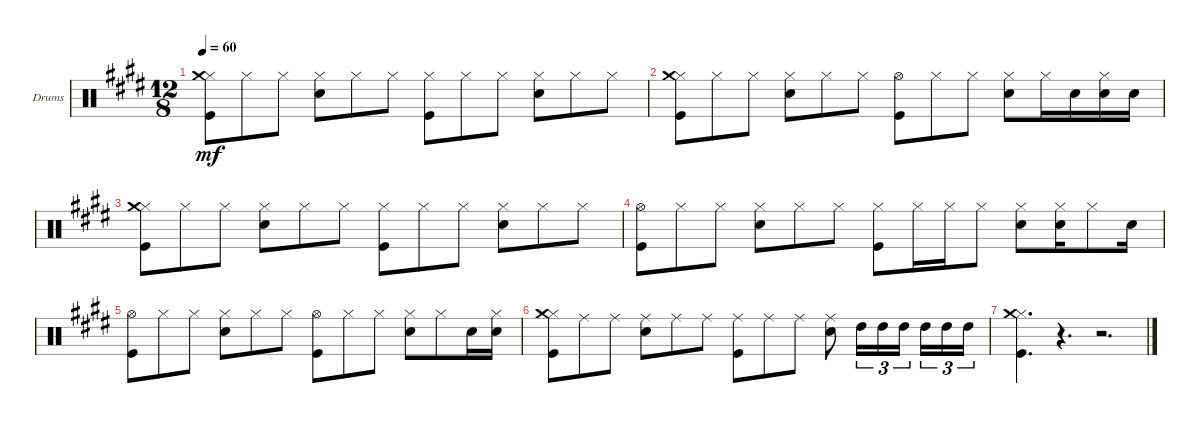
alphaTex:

\defaultSystemsLayout 4
\bracketExtendMode groupsimilarinstruments
\firstSystemTrackNameOrientation horizontal
\otherSystemsTrackNameOrientation horizontal
\track ("Drumkit" "Drums") {instrument percussion}
\staff {score}
\articulation defaults
\ts (12 8)
\tempo 60
\clef neutral
\ks e
("Hi-Hat (closed)" "Crash medium (hit)" "Kick (hit)").8{dy mf} "Hi-Hat (closed)".8 "Hi-Hat (closed)".8 ("Hi-Hat (closed)" "Snare (hit) 2").8 "Hi-Hat (closed)".8 "Hi-Hat (closed)".8 ("Hi-Hat (closed)" "Kick (hit)").8 "Hi-Hat (closed)".8 "Hi-Hat (closed)".8 ("Hi-Hat (closed)" "Snare (hit) 2").8 "Hi-Hat (closed)".8 "Hi-Hat (closed)".8 |
("Hi-Hat (closed)" "Crash medium (hit)" "Kick (hit)").8 "Hi-Hat (closed)".8 "Hi-Hat (closed)".8 ("Hi-Hat (closed)" "Snare (hit) 2").8 "Hi-Hat (closed)".8 "Hi-Hat (closed)".8 ("Hi-Hat (open)" "Kick (hit)").8 "Hi-Hat (closed)".8 "Hi-Hat (closed)".8 ("Hi-Hat (closed)" "Snare (hit) 2").8 "Hi-Hat (closed)".16 "Snare (hit) 2".16 ("Snare (hit) 2" "Hi-Hat (closed)").16 "Snare (hit) 2".16 |
("Hi-Hat (closed)" "Kick (hit)" "Crash medium (hit)").8 "Hi-Hat (closed)".8 "Hi-Hat (closed)".8 ("Hi-Hat (closed)" "Snare (hit) 2").8 "Hi-Hat (closed)".8 "Hi-Hat (closed)".8 ("Hi-Hat (closed)" "Kick (hit)").8 "Hi-Hat (closed)".8 "Hi-Hat (closed)".8 ("Hi-Hat (closed)" "Snare (hit) 2").8 "Hi-Hat (closed)".8 "Hi-Hat (closed)".8 |
("Hi-Hat (open)" "Kick (hit)").8 "Hi-Hat (closed)".8 "Hi-Hat (closed)".8 ("Hi-Hat (closed)" "Snare (hit) 2").8 "Hi-Hat (closed)".8 "Hi-Hat (closed)".8 ("Hi-Hat (closed)" "Kick (hit)").8 "Hi-Hat (closed)".16 "Hi-Hat (closed)".16 "Hi-Hat (closed)".8 ("Hi-Hat (closed)" "Snare (hit) 2").8 ("Hi-Hat (closed)" "Snare (hit) 2").16 "Hi-Hat (closed)".8 "Snare (hit) 2".16 |
("Hi-Hat (open)" "Kick (hit)").8 "Hi-Hat (closed)".8 "Hi-Hat (closed)".8 ("Hi-Hat (closed)" "Snare (hit) 2").8 "Hi-Hat (closed)".8 "Hi-Hat (closed)".8 ("Hi-Hat (open)" "Kick (hit)").8 "Hi-Hat (closed)".8 "Hi-Hat (closed)".8 ("Hi-Hat (closed)" "Snare (hit) 2").8 "Hi-Hat (closed)".8 "Snare (hit) 2".16 ("Hi-Hat (closed)" "Snare (hit) 2").16 |
("Hi-Hat (closed)" "Crash medium (hit)" "Kick (hit)").8 "Ride (middle)".8 "Ride (middle)".8 ("Ride (middle)" "Snare (hit) 2").8 "Ride (middle)".8 "Ride (middle)".8 ("Ride (middle)" "Kick (hit)").8 "Ride (middle)".8 "Ride (middle)".8 ("Ride (middle)" "Snare (hit) 2").8 "High Tom (hit)".16{tu (3 2)} "High Tom (hit)".16{tu (3 2)} "High Tom (hit)".16{tu (3 2)} "High Tom (hit)".16{tu (3 2)} "High Tom (hit)".16{tu (3 2)} "High Tom (hit)".16{tu (3 2)} |
("Hi-Hat (closed)" "Crash medium (hit)" "Kick (hit)").4{d} r.4{d} r.2{d}
